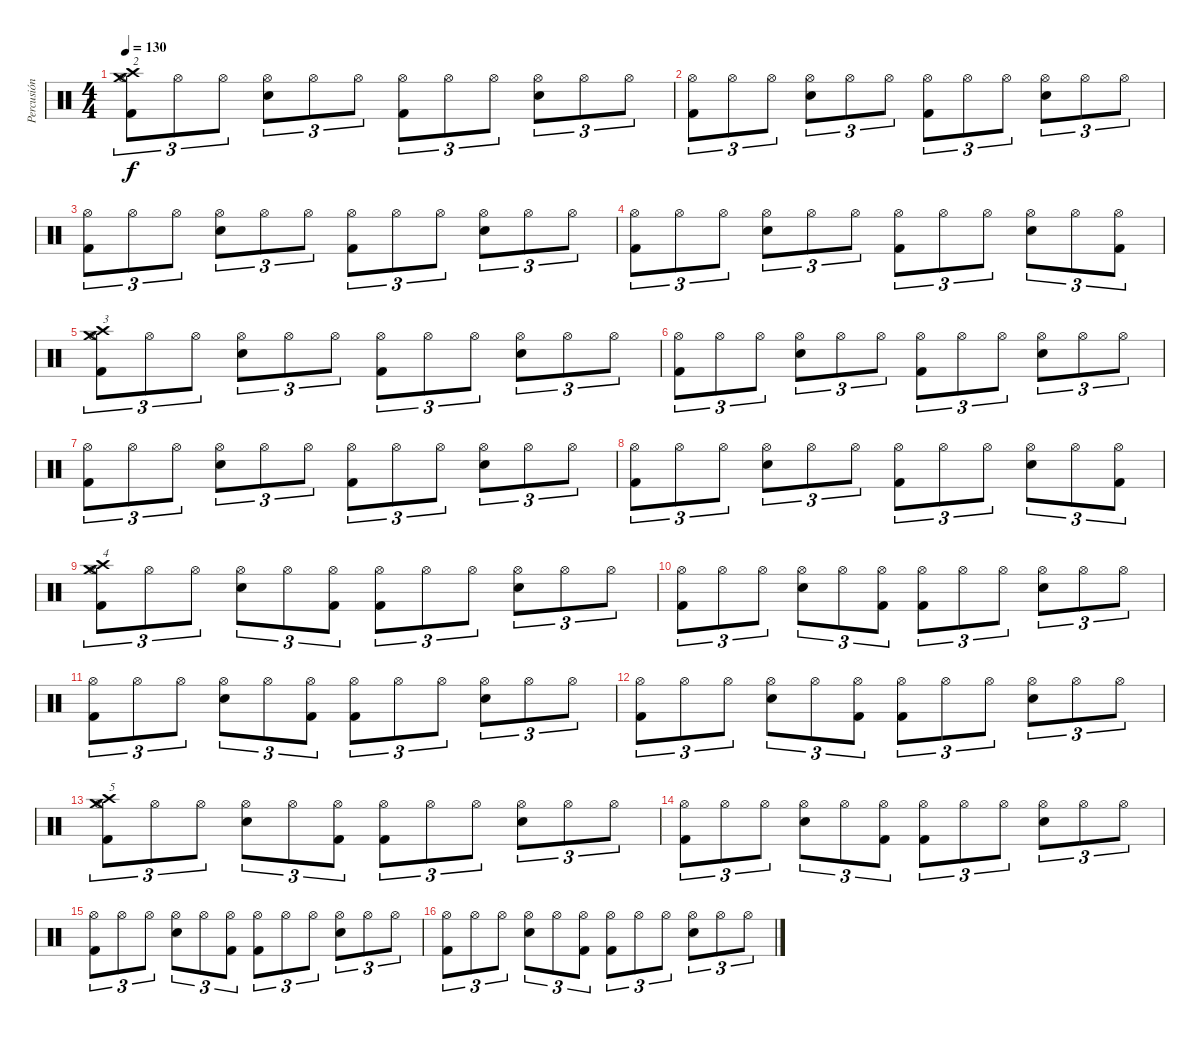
\track ("Percusión" "Percusión") {instrument percussion}
\staff {score}
\articulation defaults
\ts (4 4)
\tempo 130
\clef neutral
\ks c
("Hi-Hat (open)" "Crash medium (hit)" "Crash high (hit)" "Kick (hit) 2").8{tu (3 2) txt "2" dy f volume 12} "Hi-Hat (open)".8{tu (3 2)} "Hi-Hat (open)".8{tu (3 2)} ("Hi-Hat (open)" "Electric Snare (hit)").8{tu (3 2)} "Hi-Hat (open)".8{tu (3 2)} "Hi-Hat (open)".8{tu (3 2)} ("Hi-Hat (open)" "Kick (hit) 2").8{tu (3 2)} "Hi-Hat (open)".8{tu (3 2)} "Hi-Hat (open)".8{tu (3 2)} ("Hi-Hat (open)" "Electric Snare (hit)").8{tu (3 2)} "Hi-Hat (open)".8{tu (3 2)} "Hi-Hat (open)".8{tu (3 2)} |
("Hi-Hat (open)" "Kick (hit) 2").8{tu (3 2)} "Hi-Hat (open)".8{tu (3 2)} "Hi-Hat (open)".8{tu (3 2)} ("Hi-Hat (open)" "Electric Snare (hit)").8{tu (3 2)} "Hi-Hat (open)".8{tu (3 2)} "Hi-Hat (open)".8{tu (3 2)} ("Hi-Hat (open)" "Kick (hit) 2").8{tu (3 2)} "Hi-Hat (open)".8{tu (3 2)} "Hi-Hat (open)".8{tu (3 2)} ("Hi-Hat (open)" "Electric Snare (hit)").8{tu (3 2)} "Hi-Hat (open)".8{tu (3 2)} "Hi-Hat (open)".8{tu (3 2)} |
("Hi-Hat (open)" "Kick (hit) 2").8{tu (3 2)} "Hi-Hat (open)".8{tu (3 2)} "Hi-Hat (open)".8{tu (3 2)} ("Hi-Hat (open)" "Electric Snare (hit)").8{tu (3 2)} "Hi-Hat (open)".8{tu (3 2)} "Hi-Hat (open)".8{tu (3 2)} ("Hi-Hat (open)" "Kick (hit) 2").8{tu (3 2)} "Hi-Hat (open)".8{tu (3 2)} "Hi-Hat (open)".8{tu (3 2)} ("Hi-Hat (open)" "Electric Snare (hit)").8{tu (3 2)} "Hi-Hat (open)".8{tu (3 2)} "Hi-Hat (open)".8{tu (3 2)} |
("Hi-Hat (open)" "Kick (hit) 2").8{tu (3 2)} "Hi-Hat (open)".8{tu (3 2)} "Hi-Hat (open)".8{tu (3 2)} ("Hi-Hat (open)" "Electric Snare (hit)").8{tu (3 2)} "Hi-Hat (open)".8{tu (3 2)} "Hi-Hat (open)".8{tu (3 2)} ("Hi-Hat (open)" "Kick (hit) 2").8{tu (3 2)} "Hi-Hat (open)".8{tu (3 2)} "Hi-Hat (open)".8{tu (3 2)} ("Hi-Hat (open)" "Electric Snare (hit)").8{tu (3 2)} "Hi-Hat (open)".8{tu (3 2)} ("Hi-Hat (open)" "Kick (hit) 2").8{tu (3 2)} |
("Hi-Hat (open)" "Crash medium (hit)" "Crash high (hit)" "Kick (hit) 2").8{tu (3 2) txt "3" volume 12} "Hi-Hat (open)".8{tu (3 2)} "Hi-Hat (open)".8{tu (3 2)} ("Hi-Hat (open)" "Electric Snare (hit)").8{tu (3 2)} "Hi-Hat (open)".8{tu (3 2)} "Hi-Hat (open)".8{tu (3 2)} ("Hi-Hat (open)" "Kick (hit) 2").8{tu (3 2)} "Hi-Hat (open)".8{tu (3 2)} "Hi-Hat (open)".8{tu (3 2)} ("Hi-Hat (open)" "Electric Snare (hit)").8{tu (3 2)} "Hi-Hat (open)".8{tu (3 2)} "Hi-Hat (open)".8{tu (3 2)} |
("Hi-Hat (open)" "Kick (hit) 2").8{tu (3 2)} "Hi-Hat (open)".8{tu (3 2)} "Hi-Hat (open)".8{tu (3 2)} ("Hi-Hat (open)" "Electric Snare (hit)").8{tu (3 2)} "Hi-Hat (open)".8{tu (3 2)} "Hi-Hat (open)".8{tu (3 2)} ("Hi-Hat (open)" "Kick (hit) 2").8{tu (3 2)} "Hi-Hat (open)".8{tu (3 2)} "Hi-Hat (open)".8{tu (3 2)} ("Hi-Hat (open)" "Electric Snare (hit)").8{tu (3 2)} "Hi-Hat (open)".8{tu (3 2)} "Hi-Hat (open)".8{tu (3 2)} |
("Hi-Hat (open)" "Kick (hit) 2").8{tu (3 2)} "Hi-Hat (open)".8{tu (3 2)} "Hi-Hat (open)".8{tu (3 2)} ("Hi-Hat (open)" "Electric Snare (hit)").8{tu (3 2)} "Hi-Hat (open)".8{tu (3 2)} "Hi-Hat (open)".8{tu (3 2)} ("Hi-Hat (open)" "Kick (hit) 2").8{tu (3 2)} "Hi-Hat (open)".8{tu (3 2)} "Hi-Hat (open)".8{tu (3 2)} ("Hi-Hat (open)" "Electric Snare (hit)").8{tu (3 2)} "Hi-Hat (open)".8{tu (3 2)} "Hi-Hat (open)".8{tu (3 2)} |
("Hi-Hat (open)" "Kick (hit) 2").8{tu (3 2)} "Hi-Hat (open)".8{tu (3 2)} "Hi-Hat (open)".8{tu (3 2)} ("Hi-Hat (open)" "Electric Snare (hit)").8{tu (3 2)} "Hi-Hat (open)".8{tu (3 2)} "Hi-Hat (open)".8{tu (3 2)} ("Hi-Hat (open)" "Kick (hit) 2").8{tu (3 2)} "Hi-Hat (open)".8{tu (3 2)} "Hi-Hat (open)".8{tu (3 2)} ("Hi-Hat (open)" "Electric Snare (hit)").8{tu (3 2)} "Hi-Hat (open)".8{tu (3 2)} ("Hi-Hat (open)" "Kick (hit) 2").8{tu (3 2)} |
("Hi-Hat (open)" "Crash medium (hit)" "Crash high (hit)" "Kick (hit) 2").8{tu (3 2) txt "4" volume 12} "Hi-Hat (open)".8{tu (3 2)} "Hi-Hat (open)".8{tu (3 2)} ("Hi-Hat (open)" "Electric Snare (hit)").8{tu (3 2)} "Hi-Hat (open)".8{tu (3 2)} ("Hi-Hat (open)" "Kick (hit) 2").8{tu (3 2)} ("Hi-Hat (open)" "Kick (hit) 2").8{tu (3 2)} "Hi-Hat (open)".8{tu (3 2)} "Hi-Hat (open)".8{tu (3 2)} ("Hi-Hat (open)" "Electric Snare (hit)").8{tu (3 2)} "Hi-Hat (open)".8{tu (3 2)} "Hi-Hat (open)".8{tu (3 2)} |
("Hi-Hat (open)" "Kick (hit) 2").8{tu (3 2)} "Hi-Hat (open)".8{tu (3 2)} "Hi-Hat (open)".8{tu (3 2)} ("Hi-Hat (open)" "Electric Snare (hit)").8{tu (3 2)} "Hi-Hat (open)".8{tu (3 2)} ("Hi-Hat (open)" "Kick (hit) 2").8{tu (3 2)} ("Hi-Hat (open)" "Kick (hit) 2").8{tu (3 2)} "Hi-Hat (open)".8{tu (3 2)} "Hi-Hat (open)".8{tu (3 2)} ("Hi-Hat (open)" "Electric Snare (hit)").8{tu (3 2)} "Hi-Hat (open)".8{tu (3 2)} "Hi-Hat (open)".8{tu (3 2)} |
("Hi-Hat (open)" "Kick (hit) 2").8{tu (3 2)} "Hi-Hat (open)".8{tu (3 2)} "Hi-Hat (open)".8{tu (3 2)} ("Hi-Hat (open)" "Electric Snare (hit)").8{tu (3 2)} "Hi-Hat (open)".8{tu (3 2)} ("Hi-Hat (open)" "Kick (hit) 2").8{tu (3 2)} ("Hi-Hat (open)" "Kick (hit) 2").8{tu (3 2)} "Hi-Hat (open)".8{tu (3 2)} "Hi-Hat (open)".8{tu (3 2)} ("Hi-Hat (open)" "Electric Snare (hit)").8{tu (3 2)} "Hi-Hat (open)".8{tu (3 2)} "Hi-Hat (open)".8{tu (3 2)} |
("Hi-Hat (open)" "Kick (hit) 2").8{tu (3 2)} "Hi-Hat (open)".8{tu (3 2)} "Hi-Hat (open)".8{tu (3 2)} ("Hi-Hat (open)" "Electric Snare (hit)").8{tu (3 2)} "Hi-Hat (open)".8{tu (3 2)} ("Hi-Hat (open)" "Kick (hit) 2").8{tu (3 2)} ("Hi-Hat (open)" "Kick (hit) 2").8{tu (3 2)} "Hi-Hat (open)".8{tu (3 2)} "Hi-Hat (open)".8{tu (3 2)} ("Hi-Hat (open)" "Electric Snare (hit)").8{tu (3 2)} "Hi-Hat (open)".8{tu (3 2)} "Hi-Hat (open)".8{tu (3 2)} |
("Hi-Hat (open)" "Crash medium (hit)" "Crash high (hit)" "Kick (hit) 2").8{tu (3 2) txt "5" volume 12} "Hi-Hat (open)".8{tu (3 2)} "Hi-Hat (open)".8{tu (3 2)} ("Hi-Hat (open)" "Electric Snare (hit)").8{tu (3 2)} "Hi-Hat (open)".8{tu (3 2)} ("Hi-Hat (open)" "Kick (hit) 2").8{tu (3 2)} ("Hi-Hat (open)" "Kick (hit) 2").8{tu (3 2)} "Hi-Hat (open)".8{tu (3 2)} "Hi-Hat (open)".8{tu (3 2)} ("Hi-Hat (open)" "Electric Snare (hit)").8{tu (3 2)} "Hi-Hat (open)".8{tu (3 2)} "Hi-Hat (open)".8{tu (3 2)} |
("Hi-Hat (open)" "Kick (hit) 2").8{tu (3 2)} "Hi-Hat (open)".8{tu (3 2)} "Hi-Hat (open)".8{tu (3 2)} ("Hi-Hat (open)" "Electric Snare (hit)").8{tu (3 2)} "Hi-Hat (open)".8{tu (3 2)} ("Hi-Hat (open)" "Kick (hit) 2").8{tu (3 2)} ("Hi-Hat (open)" "Kick (hit) 2").8{tu (3 2)} "Hi-Hat (open)".8{tu (3 2)} "Hi-Hat (open)".8{tu (3 2)} ("Hi-Hat (open)" "Electric Snare (hit)").8{tu (3 2)} "Hi-Hat (open)".8{tu (3 2)} "Hi-Hat (open)".8{tu (3 2)} |
("Hi-Hat (open)" "Kick (hit) 2").8{tu (3 2)} "Hi-Hat (open)".8{tu (3 2)} "Hi-Hat (open)".8{tu (3 2)} ("Hi-Hat (open)" "Electric Snare (hit)").8{tu (3 2)} "Hi-Hat (open)".8{tu (3 2)} ("Hi-Hat (open)" "Kick (hit) 2").8{tu (3 2)} ("Hi-Hat (open)" "Kick (hit) 2").8{tu (3 2)} "Hi-Hat (open)".8{tu (3 2)} "Hi-Hat (open)".8{tu (3 2)} ("Hi-Hat (open)" "Electric Snare (hit)").8{tu (3 2)} "Hi-Hat (open)".8{tu (3 2)} "Hi-Hat (open)".8{tu (3 2)} |
("Hi-Hat (open)" "Kick (hit) 2").8{tu (3 2)} "Hi-Hat (open)".8{tu (3 2)} "Hi-Hat (open)".8{tu (3 2)} ("Hi-Hat (open)" "Electric Snare (hit)").8{tu (3 2)} "Hi-Hat (open)".8{tu (3 2)} ("Hi-Hat (open)" "Kick (hit) 2").8{tu (3 2)} ("Hi-Hat (open)" "Kick (hit) 2").8{tu (3 2)} "Hi-Hat (open)".8{tu (3 2)} "Hi-Hat (open)".8{tu (3 2)} ("Hi-Hat (open)" "Electric Snare (hit)").8{tu (3 2)} "Hi-Hat (open)".8{tu (3 2)} "Hi-Hat (open)".8{tu (3 2)}
